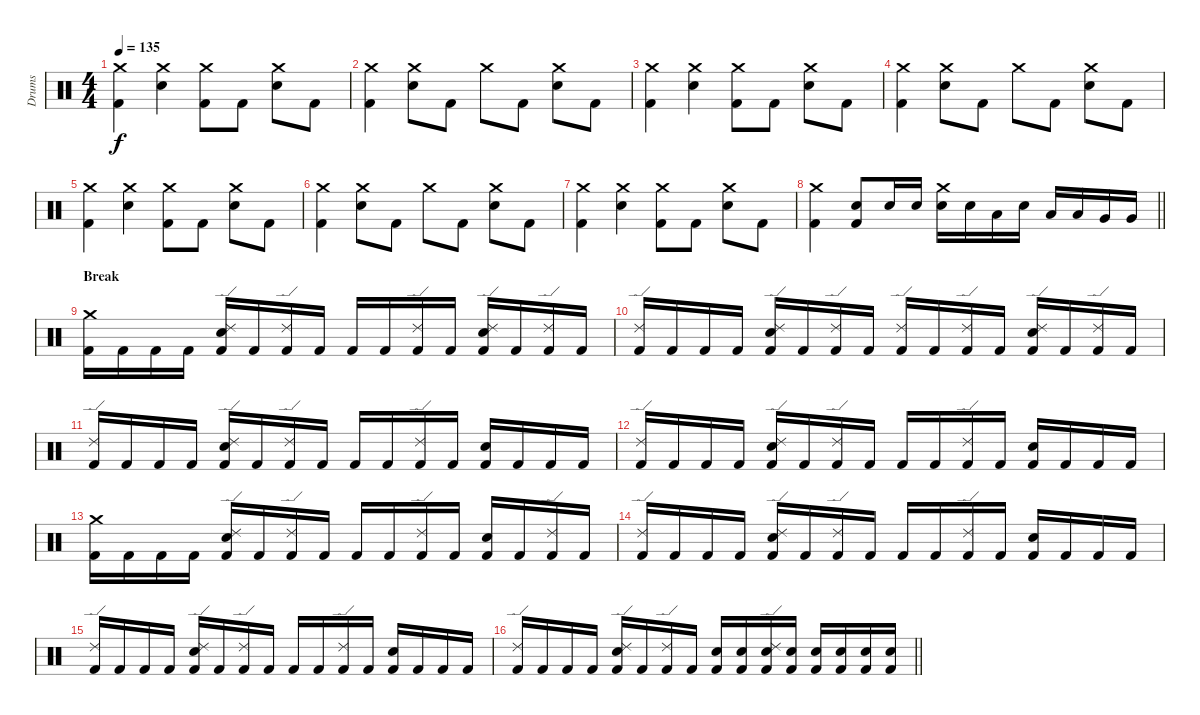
\track ("Drums" "Drums") {instrument percussion}
\staff {score}
\articulation defaults
\ts (4 4)
\section ("" "")
\tempo 135
\clef neutral
\ks c
("Kick (hit) 2" "Crash medium (hit)").4{dy f} ("Snare (hit) 2" "Crash medium (hit)").4 ("Kick (hit) 2" "Crash medium (hit)").8 "Kick (hit) 2".8 ("Snare (hit) 2" "Crash medium (hit)").8 "Kick (hit) 2".8 |
("Kick (hit) 2" "Crash medium (hit)").4 ("Snare (hit) 2" "Crash medium (hit)").8 "Kick (hit) 2".8 "Crash medium (hit)".8 "Kick (hit) 2".8 ("Snare (hit) 2" "Crash medium (hit)").8 "Kick (hit) 2".8 |
("Kick (hit) 2" "Crash medium (hit)").4 ("Snare (hit) 2" "Crash medium (hit)").4 ("Kick (hit) 2" "Crash medium (hit)").8 "Kick (hit) 2".8 ("Snare (hit) 2" "Crash medium (hit)").8 "Kick (hit) 2".8 |
("Kick (hit) 2" "Crash medium (hit)").4 ("Snare (hit) 2" "Crash medium (hit)").8 "Kick (hit) 2".8 "Crash medium (hit)".8 "Kick (hit) 2".8 ("Snare (hit) 2" "Crash medium (hit)").8 "Kick (hit) 2".8 |
("Kick (hit) 2" "Crash medium (hit)").4 ("Snare (hit) 2" "Crash medium (hit)").4 ("Kick (hit) 2" "Crash medium (hit)").8 "Kick (hit) 2".8 ("Snare (hit) 2" "Crash medium (hit)").8 "Kick (hit) 2".8 |
("Kick (hit) 2" "Crash medium (hit)").4 ("Snare (hit) 2" "Crash medium (hit)").8 "Kick (hit) 2".8 "Crash medium (hit)".8 "Kick (hit) 2".8 ("Snare (hit) 2" "Crash medium (hit)").8 "Kick (hit) 2".8 |
("Kick (hit) 2" "Crash medium (hit)").4 ("Snare (hit) 2" "Crash medium (hit)").4 ("Kick (hit) 2" "Crash medium (hit)").8 "Kick (hit) 2".8 ("Snare (hit) 2" "Crash medium (hit)").8 "Kick (hit) 2".8 |
\barLineRight lightlight
("Kick (hit) 2" "Crash medium (hit)").4 ("Kick (hit) 2" "Snare (hit) 2").8 "Snare (hit) 2".16 "Snare (hit) 2".16 ("Snare (hit) 2" "Crash medium (hit)").16 "Snare (hit) 2".16 "Low Tom (hit)".16 "Snare (hit) 2".16 "Low Tom (hit)".16 "Low Tom (hit)".16 "Very Low Tom (hit)".16 "Very Low Tom (hit)".16 |
\section ("" "Break")
("Kick (hit) 2" "Crash medium (hit)").16 "Kick (hit) 2".16 "Kick (hit) 2".16 "Kick (hit) 2".16 ("Kick (hit) 2" "Snare (hit) 2" "Ride (edge) 2").16 "Kick (hit) 2".16 ("Kick (hit) 2" "Ride (edge) 2").16 "Kick (hit) 2".16 "Kick (hit) 2".16 "Kick (hit) 2".16 ("Kick (hit) 2" "Ride (edge) 2").16 "Kick (hit) 2".16 ("Kick (hit) 2" "Snare (hit) 2" "Ride (edge) 2").16 "Kick (hit) 2".16 ("Kick (hit) 2" "Ride (edge) 2").16 "Kick (hit) 2".16 |
("Kick (hit) 2" "Ride (edge) 2").16 "Kick (hit) 2".16 "Kick (hit) 2".16 "Kick (hit) 2".16 ("Kick (hit) 2" "Snare (hit) 2" "Ride (edge) 2").16 "Kick (hit) 2".16 ("Kick (hit) 2" "Ride (edge) 2").16 "Kick (hit) 2".16 ("Kick (hit) 2" "Ride (edge) 2").16 "Kick (hit) 2".16 ("Kick (hit) 2" "Ride (edge) 2").16 "Kick (hit) 2".16 ("Kick (hit) 2" "Snare (hit) 2" "Ride (edge) 2").16 "Kick (hit) 2".16 ("Kick (hit) 2" "Ride (edge) 2").16 "Kick (hit) 2".16 |
("Kick (hit) 2" "Ride (edge) 2").16 "Kick (hit) 2".16 "Kick (hit) 2".16 "Kick (hit) 2".16 ("Kick (hit) 2" "Snare (hit) 2" "Ride (edge) 2").16 "Kick (hit) 2".16 ("Kick (hit) 2" "Ride (edge) 2").16 "Kick (hit) 2".16 "Kick (hit) 2".16 "Kick (hit) 2".16 ("Kick (hit) 2" "Ride (edge) 2").16 "Kick (hit) 2".16 ("Kick (hit) 2" "Snare (hit) 2").16 "Kick (hit) 2".16 "Kick (hit) 2".16 "Kick (hit) 2".16 |
("Kick (hit) 2" "Ride (edge) 2").16 "Kick (hit) 2".16 "Kick (hit) 2".16 "Kick (hit) 2".16 ("Kick (hit) 2" "Snare (hit) 2" "Ride (edge) 2").16 "Kick (hit) 2".16 ("Kick (hit) 2" "Ride (edge) 2").16 "Kick (hit) 2".16 "Kick (hit) 2".16 "Kick (hit) 2".16 ("Kick (hit) 2" "Ride (edge) 2").16 "Kick (hit) 2".16 ("Kick (hit) 2" "Snare (hit) 2").16 "Kick (hit) 2".16 "Kick (hit) 2".16 "Kick (hit) 2".16 |
("Kick (hit) 2" "Crash medium (hit)").16 "Kick (hit) 2".16 "Kick (hit) 2".16 "Kick (hit) 2".16 ("Kick (hit) 2" "Snare (hit) 2" "Ride (edge) 2").16 "Kick (hit) 2".16 ("Kick (hit) 2" "Ride (edge) 2").16 "Kick (hit) 2".16 "Kick (hit) 2".16 "Kick (hit) 2".16 ("Kick (hit) 2" "Ride (edge) 2").16 "Kick (hit) 2".16 ("Kick (hit) 2" "Snare (hit) 2").16 "Kick (hit) 2".16 ("Kick (hit) 2" "Ride (edge) 2").16 "Kick (hit) 2".16 |
("Kick (hit) 2" "Ride (edge) 2").16 "Kick (hit) 2".16 "Kick (hit) 2".16 "Kick (hit) 2".16 ("Kick (hit) 2" "Snare (hit) 2" "Ride (edge) 2").16 "Kick (hit) 2".16 ("Kick (hit) 2" "Ride (edge) 2").16 "Kick (hit) 2".16 "Kick (hit) 2".16 "Kick (hit) 2".16 ("Kick (hit) 2" "Ride (edge) 2").16 "Kick (hit) 2".16 ("Kick (hit) 2" "Snare (hit) 2").16 "Kick (hit) 2".16 "Kick (hit) 2".16 "Kick (hit) 2".16 |
("Kick (hit) 2" "Ride (edge) 2").16 "Kick (hit) 2".16 "Kick (hit) 2".16 "Kick (hit) 2".16 ("Kick (hit) 2" "Snare (hit) 2" "Ride (edge) 2").16 "Kick (hit) 2".16 ("Kick (hit) 2" "Ride (edge) 2").16 "Kick (hit) 2".16 "Kick (hit) 2".16 "Kick (hit) 2".16 ("Kick (hit) 2" "Ride (edge) 2").16 "Kick (hit) 2".16 ("Kick (hit) 2" "Snare (hit) 2").16 "Kick (hit) 2".16 "Kick (hit) 2".16 "Kick (hit) 2".16 |
\barLineRight lightlight
("Kick (hit) 2" "Ride (edge) 2").16 "Kick (hit) 2".16 "Kick (hit) 2".16 "Kick (hit) 2".16 ("Kick (hit) 2" "Snare (hit) 2" "Ride (edge) 2").16 "Kick (hit) 2".16 ("Kick (hit) 2" "Ride (edge) 2").16 "Kick (hit) 2".16 ("Kick (hit) 2" "Snare (hit) 2").16 ("Kick (hit) 2" "Snare (hit) 2").16 ("Kick (hit) 2" "Snare (hit) 2" "Ride (edge) 2").16 ("Kick (hit) 2" "Snare (hit) 2").16 ("Kick (hit) 2" "Snare (hit) 2").16 ("Kick (hit) 2" "Snare (hit) 2").16 ("Kick (hit) 2" "Snare (hit) 2").16 ("Kick (hit) 2" "Snare (hit) 2").16
